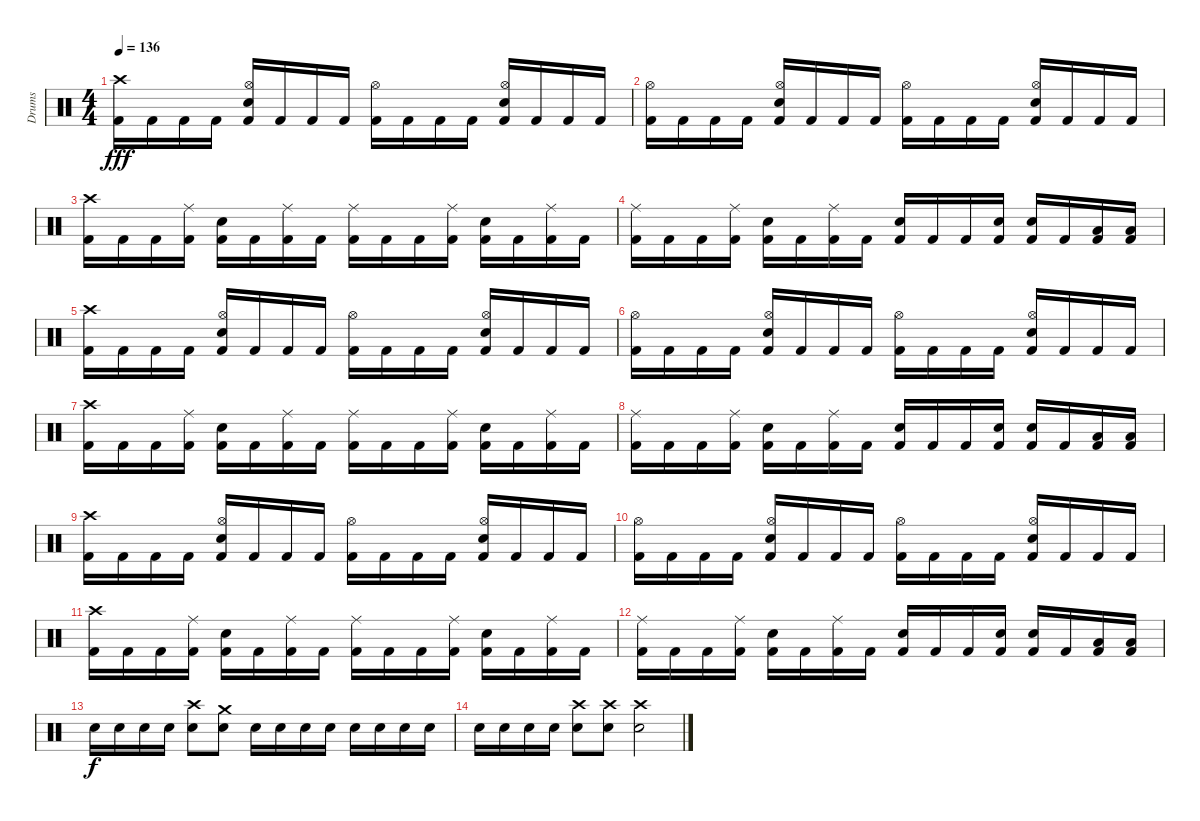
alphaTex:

\track ("Drums" "Drums") {instrument percussion}
\staff {score}
\articulation defaults
\ts (4 4)
\tempo 136
\clef neutral
\ks c
("Crash high (hit)" "Kick (hit) 2").16{dy fff} "Kick (hit) 2".16 "Kick (hit) 2".16 "Kick (hit) 2".16 ("Hi-Hat (open)" "Electric Snare (hit)" "Kick (hit) 2").16 "Kick (hit) 2".16 "Kick (hit) 2".16 "Kick (hit) 2".16 ("Hi-Hat (open)" "Kick (hit) 2").16 "Kick (hit) 2".16 "Kick (hit) 2".16 "Kick (hit) 2".16 ("Hi-Hat (open)" "Electric Snare (hit)" "Kick (hit) 2").16 "Kick (hit) 2".16 "Kick (hit) 2".16 "Kick (hit) 2".16 |
("Hi-Hat (open)" "Kick (hit) 2").16 "Kick (hit) 2".16 "Kick (hit) 2".16 "Kick (hit) 2".16 ("Hi-Hat (open)" "Electric Snare (hit)" "Kick (hit) 2").16 "Kick (hit) 2".16 "Kick (hit) 2".16 "Kick (hit) 2".16 ("Hi-Hat (open)" "Kick (hit) 2").16 "Kick (hit) 2".16 "Kick (hit) 2".16 "Kick (hit) 2".16 ("Hi-Hat (open)" "Electric Snare (hit)" "Kick (hit) 2").16 "Kick (hit) 2".16 "Kick (hit) 2".16 "Kick (hit) 2".16 |
("Crash high (hit)" "Kick (hit) 2").16 "Kick (hit) 2".16 "Kick (hit) 2".16 ("Ride (middle)" "Kick (hit) 2").16 ("Electric Snare (hit)" "Kick (hit) 2").16 "Kick (hit) 2".16 ("Ride (middle)" "Kick (hit) 2").16 "Kick (hit) 2".16 ("Ride (middle)" "Kick (hit) 2").16 "Kick (hit) 2".16 "Kick (hit) 2".16 ("Ride (middle)" "Kick (hit) 2").16 ("Electric Snare (hit)" "Kick (hit) 2").16 "Kick (hit) 2".16 ("Ride (middle)" "Kick (hit) 2").16 "Kick (hit) 2".16 |
("Ride (middle)" "Kick (hit) 2").16 "Kick (hit) 2".16 "Kick (hit) 2".16 ("Ride (middle)" "Kick (hit) 2").16 ("Electric Snare (hit)" "Kick (hit) 2").16 "Kick (hit) 2".16 ("Ride (middle)" "Kick (hit) 2").16 "Kick (hit) 2".16 ("Electric Snare (hit)" "Kick (hit) 2").16 "Kick (hit) 2".16 "Kick (hit) 2".16 ("Electric Snare (hit)" "Kick (hit) 2").16 ("Electric Snare (hit)" "Kick (hit) 2").16 "Kick (hit) 2".16 ("Low Tom (hit)" "Kick (hit) 2").16 ("Low Tom (hit)" "Kick (hit) 2").16 |
("Crash high (hit)" "Kick (hit) 2").16 "Kick (hit) 2".16 "Kick (hit) 2".16 "Kick (hit) 2".16 ("Hi-Hat (open)" "Electric Snare (hit)" "Kick (hit) 2").16 "Kick (hit) 2".16 "Kick (hit) 2".16 "Kick (hit) 2".16 ("Hi-Hat (open)" "Kick (hit) 2").16 "Kick (hit) 2".16 "Kick (hit) 2".16 "Kick (hit) 2".16 ("Hi-Hat (open)" "Electric Snare (hit)" "Kick (hit) 2").16 "Kick (hit) 2".16 "Kick (hit) 2".16 "Kick (hit) 2".16 |
("Hi-Hat (open)" "Kick (hit) 2").16 "Kick (hit) 2".16 "Kick (hit) 2".16 "Kick (hit) 2".16 ("Hi-Hat (open)" "Electric Snare (hit)" "Kick (hit) 2").16 "Kick (hit) 2".16 "Kick (hit) 2".16 "Kick (hit) 2".16 ("Hi-Hat (open)" "Kick (hit) 2").16 "Kick (hit) 2".16 "Kick (hit) 2".16 "Kick (hit) 2".16 ("Hi-Hat (open)" "Electric Snare (hit)" "Kick (hit) 2").16 "Kick (hit) 2".16 "Kick (hit) 2".16 "Kick (hit) 2".16 |
("Crash high (hit)" "Kick (hit) 2").16 "Kick (hit) 2".16 "Kick (hit) 2".16 ("Ride (middle)" "Kick (hit) 2").16 ("Electric Snare (hit)" "Kick (hit) 2").16 "Kick (hit) 2".16 ("Ride (middle)" "Kick (hit) 2").16 "Kick (hit) 2".16 ("Ride (middle)" "Kick (hit) 2").16 "Kick (hit) 2".16 "Kick (hit) 2".16 ("Ride (middle)" "Kick (hit) 2").16 ("Electric Snare (hit)" "Kick (hit) 2").16 "Kick (hit) 2".16 ("Ride (middle)" "Kick (hit) 2").16 "Kick (hit) 2".16 |
("Ride (middle)" "Kick (hit) 2").16 "Kick (hit) 2".16 "Kick (hit) 2".16 ("Ride (middle)" "Kick (hit) 2").16 ("Electric Snare (hit)" "Kick (hit) 2").16 "Kick (hit) 2".16 ("Ride (middle)" "Kick (hit) 2").16 "Kick (hit) 2".16 ("Electric Snare (hit)" "Kick (hit) 2").16 "Kick (hit) 2".16 "Kick (hit) 2".16 ("Electric Snare (hit)" "Kick (hit) 2").16 ("Electric Snare (hit)" "Kick (hit) 2").16 "Kick (hit) 2".16 ("Low Tom (hit)" "Kick (hit) 2").16 ("Low Tom (hit)" "Kick (hit) 2").16 |
("Crash high (hit)" "Kick (hit) 2").16 "Kick (hit) 2".16 "Kick (hit) 2".16 "Kick (hit) 2".16 ("Hi-Hat (open)" "Electric Snare (hit)" "Kick (hit) 2").16 "Kick (hit) 2".16 "Kick (hit) 2".16 "Kick (hit) 2".16 ("Hi-Hat (open)" "Kick (hit) 2").16 "Kick (hit) 2".16 "Kick (hit) 2".16 "Kick (hit) 2".16 ("Hi-Hat (open)" "Electric Snare (hit)" "Kick (hit) 2").16 "Kick (hit) 2".16 "Kick (hit) 2".16 "Kick (hit) 2".16 |
("Hi-Hat (open)" "Kick (hit) 2").16 "Kick (hit) 2".16 "Kick (hit) 2".16 "Kick (hit) 2".16 ("Hi-Hat (open)" "Electric Snare (hit)" "Kick (hit) 2").16 "Kick (hit) 2".16 "Kick (hit) 2".16 "Kick (hit) 2".16 ("Hi-Hat (open)" "Kick (hit) 2").16 "Kick (hit) 2".16 "Kick (hit) 2".16 "Kick (hit) 2".16 ("Hi-Hat (open)" "Electric Snare (hit)" "Kick (hit) 2").16 "Kick (hit) 2".16 "Kick (hit) 2".16 "Kick (hit) 2".16 |
("Crash high (hit)" "Kick (hit) 2").16 "Kick (hit) 2".16 "Kick (hit) 2".16 ("Ride (middle)" "Kick (hit) 2").16 ("Electric Snare (hit)" "Kick (hit) 2").16 "Kick (hit) 2".16 ("Ride (middle)" "Kick (hit) 2").16 "Kick (hit) 2".16 ("Ride (middle)" "Kick (hit) 2").16 "Kick (hit) 2".16 "Kick (hit) 2".16 ("Ride (middle)" "Kick (hit) 2").16 ("Electric Snare (hit)" "Kick (hit) 2").16 "Kick (hit) 2".16 ("Ride (middle)" "Kick (hit) 2").16 "Kick (hit) 2".16 |
("Ride (middle)" "Kick (hit) 2").16 "Kick (hit) 2".16 "Kick (hit) 2".16 ("Ride (middle)" "Kick (hit) 2").16 ("Electric Snare (hit)" "Kick (hit) 2").16 "Kick (hit) 2".16 ("Ride (middle)" "Kick (hit) 2").16 "Kick (hit) 2".16 ("Electric Snare (hit)" "Kick (hit) 2").16 "Kick (hit) 2".16 "Kick (hit) 2".16 ("Electric Snare (hit)" "Kick (hit) 2").16 ("Electric Snare (hit)" "Kick (hit) 2").16 "Kick (hit) 2".16 ("Low Tom (hit)" "Kick (hit) 2").16 ("Low Tom (hit)" "Kick (hit) 2").16 |
"Electric Snare (hit)".16{dy f} "Electric Snare (hit)".16 "Electric Snare (hit)".16 "Electric Snare (hit)".16 ("Crash high (hit)" "Electric Snare (hit)").8 ("Crash medium (hit)" "Electric Snare (hit)").8 "Electric Snare (hit)".16 "Electric Snare (hit)".16 "Electric Snare (hit)".16 "Electric Snare (hit)".16 "Electric Snare (hit)".16 "Electric Snare (hit)".16 "Electric Snare (hit)".16 "Electric Snare (hit)".16 |
"Electric Snare (hit)".16 "Electric Snare (hit)".16 "Electric Snare (hit)".16 "Electric Snare (hit)".16 ("Crash high (hit)" "Electric Snare (hit)").8 ("Crash high (hit)" "Electric Snare (hit)").8 ("Crash high (hit)" "Electric Snare (hit)").2
